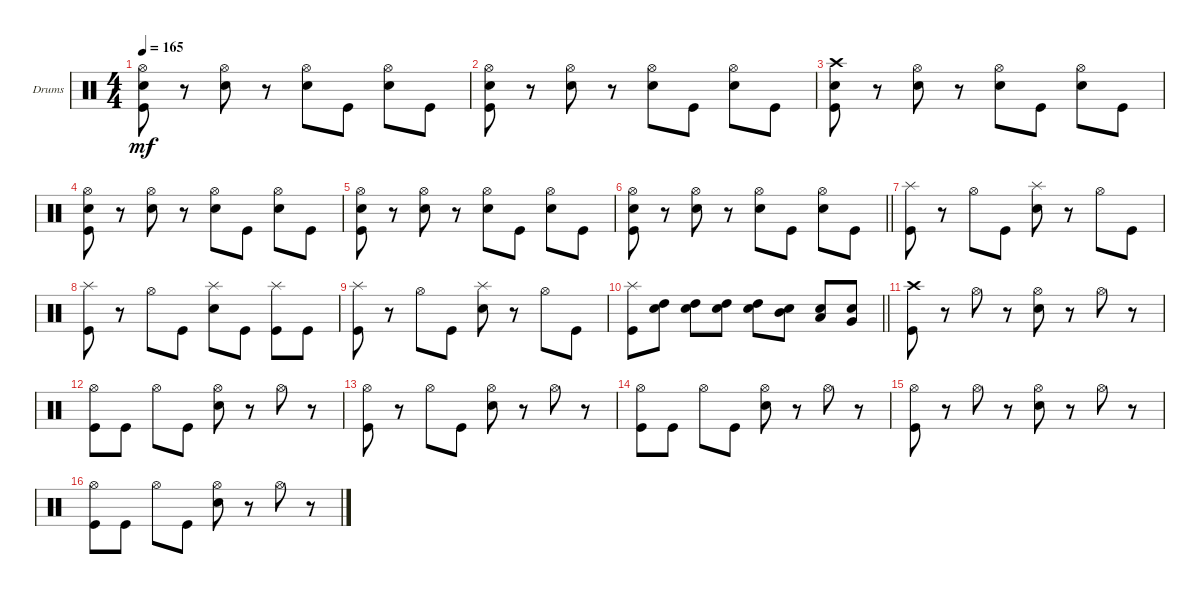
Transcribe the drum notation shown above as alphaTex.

\defaultSystemsLayout 4
\bracketExtendMode groupsimilarinstruments
\firstSystemTrackNameOrientation horizontal
\otherSystemsTrackNameOrientation horizontal
\track ("Drumkit" "Drums") {instrument percussion}
\staff {score}
\articulation defaults
\ts (4 4)
\tempo 165
\clef neutral
\ks c
("Kick (hit)" "Snare (hit) 2" "Hi-Hat (open)").8{dy mf} r.8 ("Snare (hit) 2" "Hi-Hat (open)").8 r.8 ("Snare (hit) 2" "Hi-Hat (open)").8 "Kick (hit)".8 ("Snare (hit) 2" "Hi-Hat (open)").8 "Kick (hit)".8 |
("Kick (hit)" "Snare (hit) 2" "Hi-Hat (open)").8 r.8 ("Snare (hit) 2" "Hi-Hat (open)").8 r.8 ("Snare (hit) 2" "Hi-Hat (open)").8 "Kick (hit)".8 ("Snare (hit) 2" "Hi-Hat (open)").8 "Kick (hit)".8 |
("Kick (hit)" "Snare (hit) 2" "Crash high (hit)").8 r.8 ("Snare (hit) 2" "Hi-Hat (open)").8 r.8 ("Snare (hit) 2" "Hi-Hat (open)").8 "Kick (hit)".8 ("Snare (hit) 2" "Hi-Hat (open)").8 "Kick (hit)".8 |
("Kick (hit)" "Snare (hit) 2" "Hi-Hat (open)").8 r.8 ("Snare (hit) 2" "Hi-Hat (open)").8 r.8 ("Snare (hit) 2" "Hi-Hat (open)").8 "Kick (hit)".8 ("Snare (hit) 2" "Hi-Hat (open)").8 "Kick (hit)".8 |
("Kick (hit)" "Snare (hit) 2" "Hi-Hat (open)").8 r.8 ("Snare (hit) 2" "Hi-Hat (open)").8 r.8 ("Snare (hit) 2" "Hi-Hat (open)").8 "Kick (hit)".8 ("Snare (hit) 2" "Hi-Hat (open)").8 "Kick (hit)".8 |
\barLineRight lightlight
("Kick (hit)" "Snare (hit) 2" "Hi-Hat (open)").8 r.8 ("Snare (hit) 2" "Hi-Hat (open)").8 r.8 ("Snare (hit) 2" "Hi-Hat (open)").8 "Kick (hit)".8 ("Snare (hit) 2" "Hi-Hat (open)").8 "Kick (hit)".8 |
("Kick (hit)" "Splash (hit)").8 r.8 "Hi-Hat (open)".8 "Kick (hit)".8 ("Snare (hit) 2" "Splash (hit)").8 r.8 "Hi-Hat (open)".8 "Kick (hit)".8 |
("Kick (hit)" "Splash (hit)").8 r.8 "Hi-Hat (open)".8 "Kick (hit)".8 ("Snare (hit) 2" "Splash (hit)").8 "Kick (hit)".8 ("Kick (hit)" "Splash (hit)").8 "Kick (hit)".8 |
("Kick (hit)" "Splash (hit)").8 r.8 "Hi-Hat (open)".8 "Kick (hit)".8 ("Snare (hit) 2" "Splash (hit)").8 r.8 "Hi-Hat (open)".8 "Kick (hit)".8 |
\barLineRight lightlight
("Kick (hit)" "Splash (hit)").8 ("Snare (hit) 2" "High Tom (hit)").8 ("Snare (hit) 2" "High Tom (hit)").8 ("Snare (hit) 2" "High Tom (hit)").8 ("Snare (hit) 2" "High Tom (hit)").8 ("Snare (hit) 2" "Mid Tom (hit)").8 ("Snare (hit) 2" "Low Tom (hit)").8 ("Snare (hit) 2" "Very Low Tom (hit)").8 |
("Kick (hit)" "Crash high (hit)").8 r.8 "Hi-Hat (open)".8 r.8 ("Hi-Hat (open)" "Snare (hit) 2").8 r.8 "Hi-Hat (open)".8 r.8 |
("Kick (hit)" "Hi-Hat (open)").8 "Kick (hit)".8 "Hi-Hat (open)".8 "Kick (hit)".8 ("Hi-Hat (open)" "Snare (hit) 2").8 r.8 "Hi-Hat (open)".8 r.8 |
("Kick (hit)" "Hi-Hat (open)").8 r.8 "Hi-Hat (open)".8 "Kick (hit)".8 ("Hi-Hat (open)" "Snare (hit) 2").8 r.8 "Hi-Hat (open)".8 r.8 |
("Kick (hit)" "Hi-Hat (open)").8 "Kick (hit)".8 "Hi-Hat (open)".8 "Kick (hit)".8 ("Hi-Hat (open)" "Snare (hit) 2").8 r.8 "Hi-Hat (open)".8 r.8 |
("Kick (hit)" "Hi-Hat (open)").8 r.8 "Hi-Hat (open)".8 r.8 ("Hi-Hat (open)" "Snare (hit) 2").8 r.8 "Hi-Hat (open)".8 r.8 |
("Kick (hit)" "Hi-Hat (open)").8 "Kick (hit)".8 "Hi-Hat (open)".8 "Kick (hit)".8 ("Hi-Hat (open)" "Snare (hit) 2").8 r.8 "Hi-Hat (open)".8 r.8
